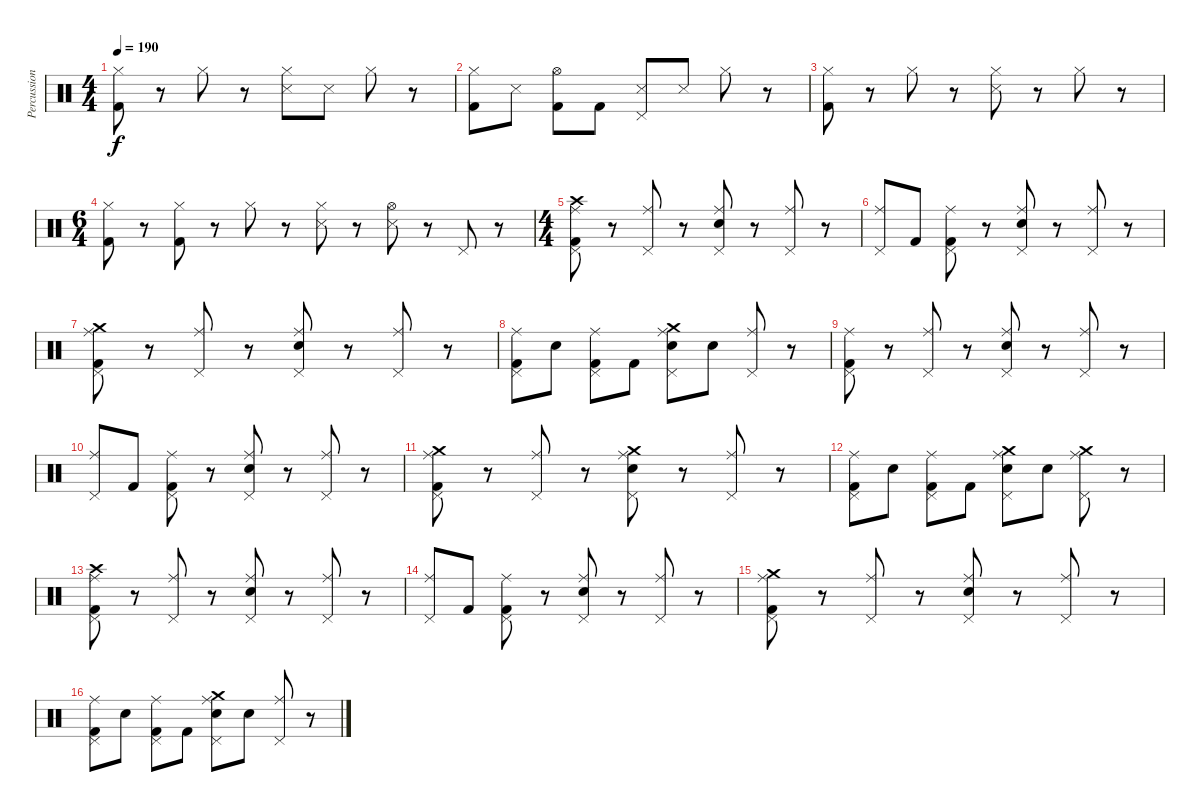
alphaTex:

\track ("Percussion" "Percussion") {instrument percussion}
\staff {score}
\articulation defaults
\ts (4 4)
\tempo 190
\clef neutral
\ks c
("Hi-Hat (closed)" "Kick (hit) 2").8{dy f} r.8 "Hi-Hat (closed)".8 r.8 ("Hi-Hat (closed)" "Snare (side stick) 3").8 "Snare (side stick) 3".8 "Hi-Hat (closed)".8 r.8 |
("Hi-Hat (closed)" "Kick (hit) 2").8 "Snare (side stick) 3".8 ("Hi-Hat (open)" "Kick (hit) 2").8 "Kick (hit) 2".8 ("Pedal Hi-Hat (hit)" "Snare (side stick) 3").8 "Snare (side stick) 3".8 "Hi-Hat (closed)".8 r.8 |
("Hi-Hat (closed)" "Kick (hit) 2").8 r.8 "Hi-Hat (closed)".8 r.8 ("Hi-Hat (closed)" "Snare (side stick) 3").8 r.8 "Hi-Hat (closed)".8 r.8 |
\ts (6 4)
("Hi-Hat (closed)" "Kick (hit) 2").8 r.8 ("Hi-Hat (closed)" "Kick (hit) 2").8 r.8 "Hi-Hat (closed)".8 r.8 ("Hi-Hat (closed)" "Snare (side stick) 3").8 r.8 ("Hi-Hat (open)" "Snare (side stick) 3").8 r.8 "Pedal Hi-Hat (hit)".8 r.8 |
\ts (4 4)
("Crash high (hit)" "Ride (middle)" "Pedal Hi-Hat (hit)" "Kick (hit) 2").8 r.8 ("Ride (middle)" "Pedal Hi-Hat (hit)").8 r.8 ("Ride (middle)" "Pedal Hi-Hat (hit)" "Snare (hit) 2").8 r.8 ("Ride (middle)" "Pedal Hi-Hat (hit)").8 r.8 |
("Ride (middle)" "Pedal Hi-Hat (hit)").8 "Kick (hit) 2".8 ("Ride (middle)" "Pedal Hi-Hat (hit)" "Kick (hit) 2").8 r.8 ("Ride (middle)" "Pedal Hi-Hat (hit)" "Snare (hit) 2").8 r.8 ("Ride (middle)" "Pedal Hi-Hat (hit)").8 r.8 |
("Crash medium (hit)" "Ride (middle)" "Pedal Hi-Hat (hit)" "Kick (hit) 2").8 r.8 ("Ride (middle)" "Pedal Hi-Hat (hit)").8 r.8 ("Ride (middle)" "Pedal Hi-Hat (hit)" "Snare (hit) 2").8 r.8 ("Ride (middle)" "Pedal Hi-Hat (hit)").8 r.8 |
("Ride (middle)" "Pedal Hi-Hat (hit)" "Kick (hit) 2").8 "Snare (hit) 2".8 ("Ride (middle)" "Pedal Hi-Hat (hit)" "Kick (hit) 2").8 "Kick (hit) 2".8 ("Crash medium (hit)" "Ride (middle)" "Pedal Hi-Hat (hit)" "Snare (hit) 2").8 "Snare (hit) 2".8 ("Ride (middle)" "Pedal Hi-Hat (hit)").8 r.8 |
("Ride (middle)" "Pedal Hi-Hat (hit)" "Kick (hit) 2").8 r.8 ("Ride (middle)" "Pedal Hi-Hat (hit)").8 r.8 ("Ride (middle)" "Pedal Hi-Hat (hit)" "Snare (hit) 2").8 r.8 ("Ride (middle)" "Pedal Hi-Hat (hit)").8 r.8 |
("Ride (middle)" "Pedal Hi-Hat (hit)").8 "Kick (hit) 2".8 ("Ride (middle)" "Pedal Hi-Hat (hit)" "Kick (hit) 2").8 r.8 ("Ride (middle)" "Pedal Hi-Hat (hit)" "Snare (hit) 2").8 r.8 ("Ride (middle)" "Pedal Hi-Hat (hit)").8 r.8 |
("Crash medium (hit)" "Ride (middle)" "Pedal Hi-Hat (hit)" "Kick (hit) 2").8 r.8 ("Ride (middle)" "Pedal Hi-Hat (hit)").8 r.8 ("Crash medium (hit)" "Ride (middle)" "Pedal Hi-Hat (hit)" "Snare (hit) 2").8 r.8 ("Ride (middle)" "Pedal Hi-Hat (hit)").8 r.8 |
("Ride (middle)" "Pedal Hi-Hat (hit)" "Kick (hit) 2").8 "Snare (hit) 2".8 ("Ride (middle)" "Pedal Hi-Hat (hit)" "Kick (hit) 2").8 "Kick (hit) 2".8 ("Crash medium (hit)" "Ride (middle)" "Pedal Hi-Hat (hit)" "Snare (hit) 2").8 "Snare (hit) 2".8 ("Crash medium (hit)" "Ride (middle)" "Pedal Hi-Hat (hit)").8 r.8 |
("Crash high (hit)" "Ride (middle)" "Pedal Hi-Hat (hit)" "Kick (hit) 2").8 r.8 ("Ride (middle)" "Pedal Hi-Hat (hit)").8 r.8 ("Ride (middle)" "Pedal Hi-Hat (hit)" "Snare (hit) 2").8 r.8 ("Ride (middle)" "Pedal Hi-Hat (hit)").8 r.8 |
("Ride (middle)" "Pedal Hi-Hat (hit)").8 "Kick (hit) 2".8 ("Ride (middle)" "Pedal Hi-Hat (hit)" "Kick (hit) 2").8 r.8 ("Ride (middle)" "Pedal Hi-Hat (hit)" "Snare (hit) 2").8 r.8 ("Ride (middle)" "Pedal Hi-Hat (hit)").8 r.8 |
("Crash medium (hit)" "Ride (middle)" "Pedal Hi-Hat (hit)" "Kick (hit) 2").8 r.8 ("Ride (middle)" "Pedal Hi-Hat (hit)").8 r.8 ("Ride (middle)" "Pedal Hi-Hat (hit)" "Snare (hit) 2").8 r.8 ("Ride (middle)" "Pedal Hi-Hat (hit)").8 r.8 |
("Ride (middle)" "Pedal Hi-Hat (hit)" "Kick (hit) 2").8 "Snare (hit) 2".8 ("Ride (middle)" "Pedal Hi-Hat (hit)" "Kick (hit) 2").8 "Kick (hit) 2".8 ("Crash medium (hit)" "Ride (middle)" "Pedal Hi-Hat (hit)" "Snare (hit) 2").8 "Snare (hit) 2".8 ("Ride (middle)" "Pedal Hi-Hat (hit)").8 r.8
